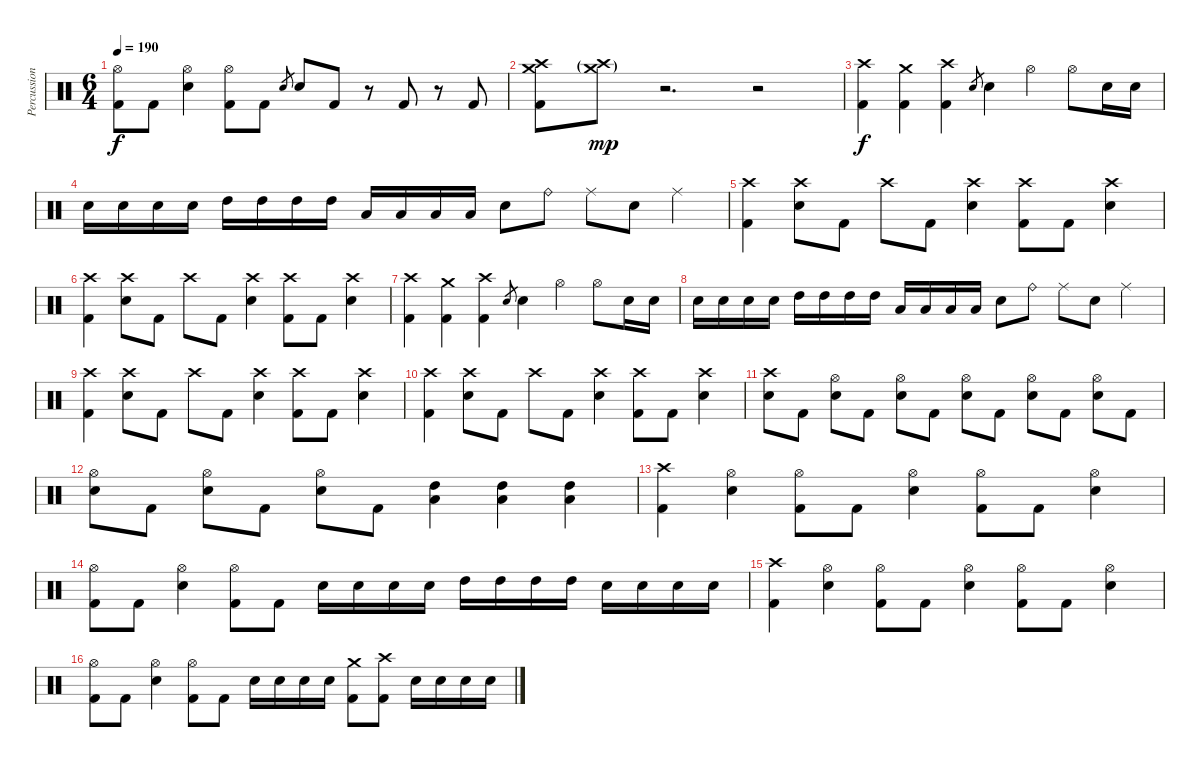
\track ("Percussion" "Percussion") {instrument percussion}
\staff {score}
\articulation defaults
\ts (6 4)
\tempo 190
\clef neutral
\ks c
("Hi-Hat (open)" "Kick (hit) 2").8{dy f} "Kick (hit) 2".8 ("Hi-Hat (open)" "Electric Snare (hit)").4 ("Hi-Hat (open)" "Kick (hit) 2").8 "Kick (hit) 2".8 "Electric Snare (hit)".8{gr} "Electric Snare (hit)".8 "Kick (hit) 2".8 r.8 "Kick (hit) 2".8 r.8 "Kick (hit) 2".8 |
("Crash medium (hit)" "Crash high (hit)" "Kick (hit) 2").8 ("Crash medium (hit)"{g} "Crash high (hit)"{g}).8{dy mp} r.2{d} r.2 |
("Crash high (hit)" "Kick (hit) 2").4{dy f} ("Crash medium (hit)" "Kick (hit) 2").4 ("Crash high (hit)" "Kick (hit) 2").4 "Electric Snare (hit)".8{gr} "Electric Snare (hit)".4 "Hi-Hat (open)".4 "Hi-Hat (open)".8 "Electric Snare (hit)".16 "Electric Snare (hit)".16 |
"Electric Snare (hit)".16 "Electric Snare (hit)".16 "Electric Snare (hit)".16 "Electric Snare (hit)".16 "High Tom (hit)".16 "High Tom (hit)".16 "High Tom (hit)".16 "High Tom (hit)".16 "Low Tom (hit)".16 "Low Tom (hit)".16 "Low Tom (hit)".16 "Low Tom (hit)".16 "Electric Snare (hit)".8 "Ride (bell)".8 "Ride (middle)".8 "Electric Snare (hit)".8 "Ride (middle)".4 |
("Crash high (hit)" "Kick (hit) 2").4 ("Crash high (hit)" "Electric Snare (hit)").8 "Kick (hit) 2".8 "Crash high (hit)".8 "Kick (hit) 2".8 ("Crash high (hit)" "Electric Snare (hit)").4 ("Crash high (hit)" "Kick (hit) 2").8 "Kick (hit) 2".8 ("Crash high (hit)" "Electric Snare (hit)").4 |
("Crash high (hit)" "Kick (hit) 2").4 ("Crash high (hit)" "Electric Snare (hit)").8 "Kick (hit) 2".8 "Crash high (hit)".8 "Kick (hit) 2".8 ("Crash high (hit)" "Electric Snare (hit)").4 ("Crash high (hit)" "Kick (hit) 2").8 "Kick (hit) 2".8 ("Crash high (hit)" "Electric Snare (hit)").4 |
("Crash high (hit)" "Kick (hit) 2").4 ("Crash medium (hit)" "Kick (hit) 2").4 ("Crash high (hit)" "Kick (hit) 2").4 "Electric Snare (hit)".8{gr} "Electric Snare (hit)".4 "Hi-Hat (open)".4 "Hi-Hat (open)".8 "Electric Snare (hit)".16 "Electric Snare (hit)".16 |
"Electric Snare (hit)".16 "Electric Snare (hit)".16 "Electric Snare (hit)".16 "Electric Snare (hit)".16 "High Tom (hit)".16 "High Tom (hit)".16 "High Tom (hit)".16 "High Tom (hit)".16 "Low Tom (hit)".16 "Low Tom (hit)".16 "Low Tom (hit)".16 "Low Tom (hit)".16 "Electric Snare (hit)".8 "Ride (bell)".8 "Ride (middle)".8 "Electric Snare (hit)".8 "Ride (middle)".4 |
("Crash high (hit)" "Kick (hit) 2").4 ("Crash high (hit)" "Electric Snare (hit)").8 "Kick (hit) 2".8 "Crash high (hit)".8 "Kick (hit) 2".8 ("Crash high (hit)" "Electric Snare (hit)").4 ("Crash high (hit)" "Kick (hit) 2").8 "Kick (hit) 2".8 ("Crash high (hit)" "Electric Snare (hit)").4 |
("Crash high (hit)" "Kick (hit) 2").4 ("Crash high (hit)" "Electric Snare (hit)").8 "Kick (hit) 2".8 "Crash high (hit)".8 "Kick (hit) 2".8 ("Crash high (hit)" "Electric Snare (hit)").4 ("Crash high (hit)" "Kick (hit) 2").8 "Kick (hit) 2".8 ("Crash high (hit)" "Electric Snare (hit)").4 |
("Crash high (hit)" "Electric Snare (hit)").8 "Kick (hit) 2".8 ("Hi-Hat (open)" "Electric Snare (hit)").8 "Kick (hit) 2".8 ("Hi-Hat (open)" "Electric Snare (hit)").8 "Kick (hit) 2".8 ("Hi-Hat (open)" "Electric Snare (hit)").8 "Kick (hit) 2".8 ("Hi-Hat (open)" "Electric Snare (hit)").8 "Kick (hit) 2".8 ("Hi-Hat (open)" "Electric Snare (hit)").8 "Kick (hit) 2".8 |
("Hi-Hat (open)" "Electric Snare (hit)").8 "Kick (hit) 2".8 ("Hi-Hat (open)" "Electric Snare (hit)").8 "Kick (hit) 2".8 ("Hi-Hat (open)" "Electric Snare (hit)").8 "Kick (hit) 2".8 ("High Tom (hit)" "Low Tom (hit)").4 ("High Tom (hit)" "Low Tom (hit)").4 ("High Tom (hit)" "Low Tom (hit)").4 |
("Crash high (hit)" "Kick (hit) 2").4 ("Hi-Hat (open)" "Electric Snare (hit)").4 ("Hi-Hat (open)" "Kick (hit) 2").8 "Kick (hit) 2".8 ("Hi-Hat (open)" "Electric Snare (hit)").4 ("Hi-Hat (open)" "Kick (hit) 2").8 "Kick (hit) 2".8 ("Hi-Hat (open)" "Electric Snare (hit)").4 |
("Hi-Hat (open)" "Kick (hit) 2").8 "Kick (hit) 2".8 ("Hi-Hat (open)" "Electric Snare (hit)").4 ("Hi-Hat (open)" "Kick (hit) 2").8 "Kick (hit) 2".8 "Electric Snare (hit)".16 "Electric Snare (hit)".16 "Electric Snare (hit)".16 "Electric Snare (hit)".16 "High Tom (hit)".16 "High Tom (hit)".16 "High Tom (hit)".16 "High Tom (hit)".16 "Electric Snare (hit)".16 "Electric Snare (hit)".16 "Electric Snare (hit)".16 "Electric Snare (hit)".16 |
("Crash high (hit)" "Kick (hit) 2").4 ("Hi-Hat (open)" "Electric Snare (hit)").4 ("Hi-Hat (open)" "Kick (hit) 2").8 "Kick (hit) 2".8 ("Hi-Hat (open)" "Electric Snare (hit)").4 ("Hi-Hat (open)" "Kick (hit) 2").8 "Kick (hit) 2".8 ("Hi-Hat (open)" "Electric Snare (hit)").4 |
("Hi-Hat (open)" "Kick (hit) 2").8 "Kick (hit) 2".8 ("Hi-Hat (open)" "Electric Snare (hit)").4 ("Hi-Hat (open)" "Kick (hit) 2").8 "Kick (hit) 2".8 "Electric Snare (hit)".16 "Electric Snare (hit)".16 "Electric Snare (hit)".16 "Electric Snare (hit)".16 ("Crash medium (hit)" "Kick (hit) 2").8 ("Crash high (hit)" "Kick (hit) 2").8 "Electric Snare (hit)".16 "Electric Snare (hit)".16 "Electric Snare (hit)".16 "Electric Snare (hit)".16
